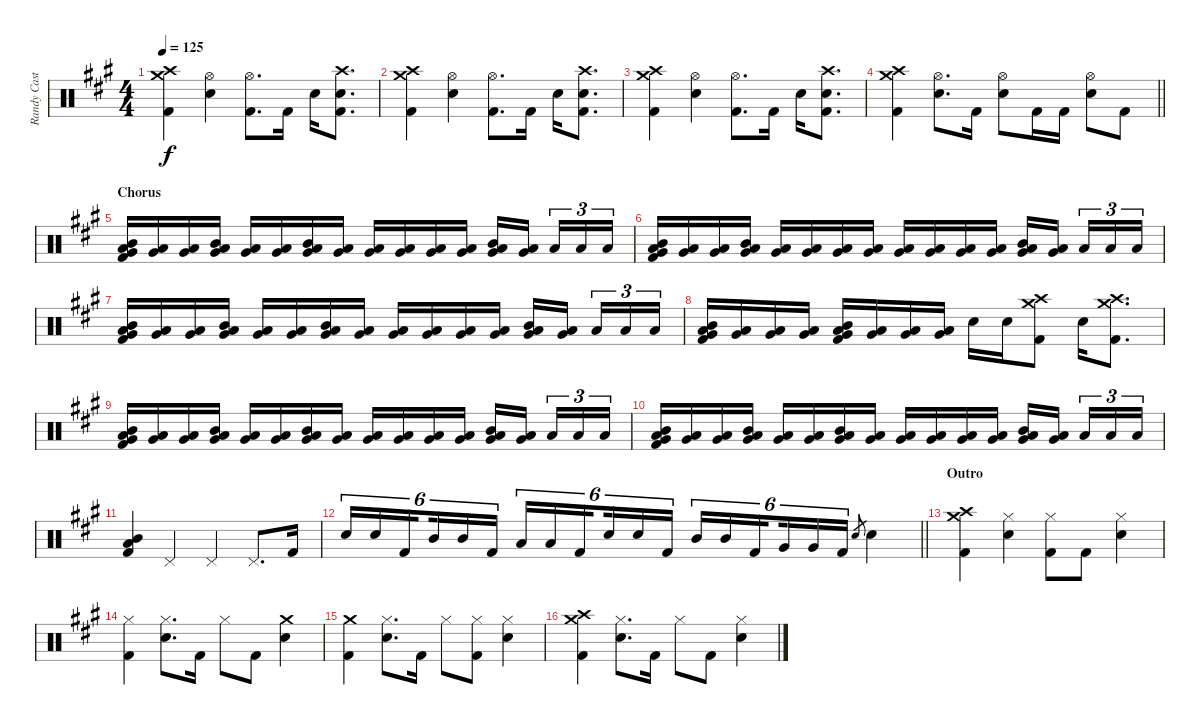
\track ("Randy Castillo - Drums" "Randy Cast") {instrument percussion}
\staff {score}
\articulation defaults
\ts (4 4)
\tempo 125
\clef neutral
\ks a
("Crash medium (hit)" "Crash high (hit)" "Kick (hit) 2").4{dy f} ("Hi-Hat (open)" "Snare (hit) 2").4 ("Hi-Hat (open)" "Kick (hit) 2").8{d} "Kick (hit) 2".16 "Snare (hit) 2".16 ("Snare (hit)" "Crash high (hit)" "Kick (hit) 2").8{d} |
("Crash medium (hit)" "Crash high (hit)" "Kick (hit) 2").4 ("Hi-Hat (open)" "Snare (hit) 2").4 ("Hi-Hat (open)" "Kick (hit) 2").8{d} "Kick (hit) 2".16 "Snare (hit) 2".16 ("Snare (hit)" "Crash high (hit)" "Kick (hit) 2").8{d} |
("Crash medium (hit)" "Crash high (hit)" "Kick (hit) 2").4 ("Hi-Hat (open)" "Snare (hit) 2").4 ("Hi-Hat (open)" "Kick (hit) 2").8{d} "Kick (hit) 2".16 "Snare (hit) 2".16 ("Snare (hit)" "Crash high (hit)" "Kick (hit) 2").8{d} |
\barLineRight lightlight
("Crash medium (hit)" "Crash high (hit)" "Kick (hit) 2").4 ("Hi-Hat (open)" "Snare (hit) 2").8{d} "Kick (hit) 2".16 ("Hi-Hat (open)" "Snare (hit) 2").8 "Kick (hit) 2".16 "Kick (hit) 2".16 ("Hi-Hat (open)" "Snare (hit) 2").8 "Kick (hit) 2".8 |
\section ("" "Chorus")
("Mid Tom (hit)" "Low Tom (hit)" "Very Low Tom (hit)" "Kick (hit) 2").16 ("Low Tom (hit)" "Very Low Tom (hit)").16 ("Low Tom (hit)" "Very Low Tom (hit)").16 ("Mid Tom (hit)" "Low Tom (hit)" "Very Low Tom (hit)").16 ("Low Tom (hit)" "Very Low Tom (hit)").16 ("Low Tom (hit)" "Very Low Tom (hit)").16 ("Mid Tom (hit)" "Low Tom (hit)" "Very Low Tom (hit)").16 ("Low Tom (hit)" "Very Low Tom (hit)").16 ("Low Tom (hit)" "Very Low Tom (hit)").16 ("Low Tom (hit)" "Very Low Tom (hit)").16 ("Low Tom (hit)" "Very Low Tom (hit)").16 ("Low Tom (hit)" "Very Low Tom (hit)").16 ("Mid Tom (hit)" "Low Tom (hit)" "Very Low Tom (hit)").16 ("Low Tom (hit)" "Very Low Tom (hit)").16{beam splitsecondary} "Low Tom (hit)".16{tu (3 2)} "Low Tom (hit)".16{tu (3 2)} "Low Tom (hit)".16{tu (3 2)} |
("Mid Tom (hit)" "Low Tom (hit)" "Very Low Tom (hit)" "Kick (hit) 2").16 ("Low Tom (hit)" "Very Low Tom (hit)").16 ("Low Tom (hit)" "Very Low Tom (hit)").16 ("Mid Tom (hit)" "Low Tom (hit)" "Very Low Tom (hit)").16 ("Low Tom (hit)" "Very Low Tom (hit)").16 ("Low Tom (hit)" "Very Low Tom (hit)").16 ("Low Tom (hit)" "Very Low Tom (hit)").16 ("Low Tom (hit)" "Very Low Tom (hit)").16 ("Low Tom (hit)" "Very Low Tom (hit)").16 ("Low Tom (hit)" "Very Low Tom (hit)").16 ("Low Tom (hit)" "Very Low Tom (hit)").16 ("Low Tom (hit)" "Very Low Tom (hit)").16 ("Mid Tom (hit)" "Low Tom (hit)" "Very Low Tom (hit)").16 ("Low Tom (hit)" "Very Low Tom (hit)").16{beam splitsecondary} "Low Tom (hit)".16{tu (3 2)} "Low Tom (hit)".16{tu (3 2)} "Low Tom (hit)".16{tu (3 2)} |
("Mid Tom (hit)" "Low Tom (hit)" "Very Low Tom (hit)" "Kick (hit) 2").16 ("Low Tom (hit)" "Very Low Tom (hit)").16 ("Low Tom (hit)" "Very Low Tom (hit)").16 ("Mid Tom (hit)" "Low Tom (hit)" "Very Low Tom (hit)").16 ("Low Tom (hit)" "Very Low Tom (hit)").16 ("Low Tom (hit)" "Very Low Tom (hit)").16 ("Mid Tom (hit)" "Low Tom (hit)" "Very Low Tom (hit)").16 ("Low Tom (hit)" "Very Low Tom (hit)").16 ("Low Tom (hit)" "Very Low Tom (hit)").16 ("Low Tom (hit)" "Very Low Tom (hit)").16 ("Low Tom (hit)" "Very Low Tom (hit)").16 ("Low Tom (hit)" "Very Low Tom (hit)").16 ("Mid Tom (hit)" "Low Tom (hit)" "Very Low Tom (hit)").16 ("Low Tom (hit)" "Very Low Tom (hit)").16{beam splitsecondary} "Low Tom (hit)".16{tu (3 2)} "Low Tom (hit)".16{tu (3 2)} "Low Tom (hit)".16{tu (3 2)} |
("Mid Tom (hit)" "Low Tom (hit)" "Very Low Tom (hit)" "Kick (hit) 2").16 ("Low Tom (hit)" "Very Low Tom (hit)").16 ("Low Tom (hit)" "Very Low Tom (hit)").16 ("Low Tom (hit)" "Very Low Tom (hit)").16 ("Mid Tom (hit)" "Low Tom (hit)" "Very Low Tom (hit)" "Kick (hit) 2").16 ("Low Tom (hit)" "Very Low Tom (hit)").16 ("Low Tom (hit)" "Very Low Tom (hit)").16 ("Low Tom (hit)" "Very Low Tom (hit)").16 "Snare (hit) 2".16 "Snare (hit) 2".16 ("Crash medium (hit)" "Crash high (hit)" "Kick (hit) 2").8 "Snare (hit) 2".16 ("Crash medium (hit)" "Crash high (hit)" "Kick (hit) 2").8{d} |
("Mid Tom (hit)" "Low Tom (hit)" "Very Low Tom (hit)" "Kick (hit) 2").16 ("Low Tom (hit)" "Very Low Tom (hit)").16 ("Low Tom (hit)" "Very Low Tom (hit)").16 ("Mid Tom (hit)" "Low Tom (hit)" "Very Low Tom (hit)").16 ("Low Tom (hit)" "Very Low Tom (hit)").16 ("Low Tom (hit)" "Very Low Tom (hit)").16 ("Mid Tom (hit)" "Low Tom (hit)" "Very Low Tom (hit)").16 ("Low Tom (hit)" "Very Low Tom (hit)").16 ("Low Tom (hit)" "Very Low Tom (hit)").16 ("Low Tom (hit)" "Very Low Tom (hit)").16 ("Low Tom (hit)" "Very Low Tom (hit)").16 ("Low Tom (hit)" "Very Low Tom (hit)").16 ("Mid Tom (hit)" "Low Tom (hit)" "Very Low Tom (hit)").16 ("Low Tom (hit)" "Very Low Tom (hit)").16{beam splitsecondary} "Low Tom (hit)".16{tu (3 2)} "Low Tom (hit)".16{tu (3 2)} "Low Tom (hit)".16{tu (3 2)} |
("Mid Tom (hit)" "Low Tom (hit)" "Very Low Tom (hit)" "Kick (hit) 2").16 ("Low Tom (hit)" "Very Low Tom (hit)").16 ("Low Tom (hit)" "Very Low Tom (hit)").16 ("Mid Tom (hit)" "Low Tom (hit)" "Very Low Tom (hit)").16 ("Low Tom (hit)" "Very Low Tom (hit)").16 ("Low Tom (hit)" "Very Low Tom (hit)").16 ("Mid Tom (hit)" "Low Tom (hit)" "Very Low Tom (hit)").16 ("Low Tom (hit)" "Very Low Tom (hit)").16 ("Low Tom (hit)" "Very Low Tom (hit)").16 ("Low Tom (hit)" "Very Low Tom (hit)").16 ("Low Tom (hit)" "Very Low Tom (hit)").16 ("Low Tom (hit)" "Very Low Tom (hit)").16 ("Mid Tom (hit)" "Low Tom (hit)" "Very Low Tom (hit)").16 ("Low Tom (hit)" "Very Low Tom (hit)").16{beam splitsecondary} "Low Tom (hit)".16{tu (3 2)} "Low Tom (hit)".16{tu (3 2)} "Low Tom (hit)".16{tu (3 2)} |
("Mid Tom (hit)" "Low Tom (hit)" "Kick (hit) 2").4 "Pedal Hi-Hat (hit)".4 "Pedal Hi-Hat (hit)".4 "Pedal Hi-Hat (hit)".8{d} "Kick (hit) 2".16 |
\barLineRight lightlight "Snare (hit) 2".16{tu (6 4)} "Snare (hit) 2".16{tu (6 4)} "Kick (hit) 2".16{tu (6 4) beam splitsecondary} "Mid Tom (hit)".16{tu (6 4)} "Mid Tom (hit)".16{tu (6 4)} "Kick (hit) 2".16{tu (6 4)} "Low Tom (hit)".16{tu (6 4)} "Low Tom (hit)".16{tu (6 4)} "Kick (hit) 2".16{tu (6 4) beam splitsecondary} "Snare (hit) 2".16{tu (6 4)} "Snare (hit) 2".16{tu (6 4)} "Kick (hit) 2".16{tu (6 4)} "Mid Tom (hit)".16{tu (6 4)} "Mid Tom (hit)".16{tu (6 4)} "Kick (hit) 2".16{tu (6 4) beam splitsecondary} "Very Low Tom (hit)".16{tu (6 4)} "Very Low Tom (hit)".16{tu (6 4)} "Kick (hit) 2".16{tu (6 4)} "Snare (hit) 2".8{gr} "Snare (hit) 2".4
|
\section ("" "Outro")
("Crash medium (hit)" "Crash high (hit)" "Kick (hit) 2").4 ("Hi-Hat (closed)" "Snare (hit) 2").4 ("Hi-Hat (closed)" "Kick (hit) 2").8 "Kick (hit) 2".8 ("Hi-Hat (closed)" "Snare (hit) 2").4 |
("Hi-Hat (closed)" "Kick (hit) 2").4 ("Hi-Hat (closed)" "Snare (hit) 2").8{d} "Kick (hit) 2".16 "Hi-Hat (closed)".8 "Kick (hit) 2".8 ("Crash medium (hit)" "Snare (hit) 2").4 |
("Crash medium (hit)" "Kick (hit) 2").4 ("Hi-Hat (closed)" "Snare (hit) 2").8{d} "Kick (hit) 2".16 "Hi-Hat (closed)".8 ("Hi-Hat (closed)" "Kick (hit) 2").8 ("Hi-Hat (closed)" "Snare (hit) 2").4 |
("Crash medium (hit)" "Crash high (hit)" "Kick (hit) 2").4 ("Hi-Hat (closed)" "Snare (hit) 2").8{d} "Kick (hit) 2".16 "Hi-Hat (closed)".8 "Kick (hit) 2".8 ("Hi-Hat (closed)" "Snare (hit) 2").4
